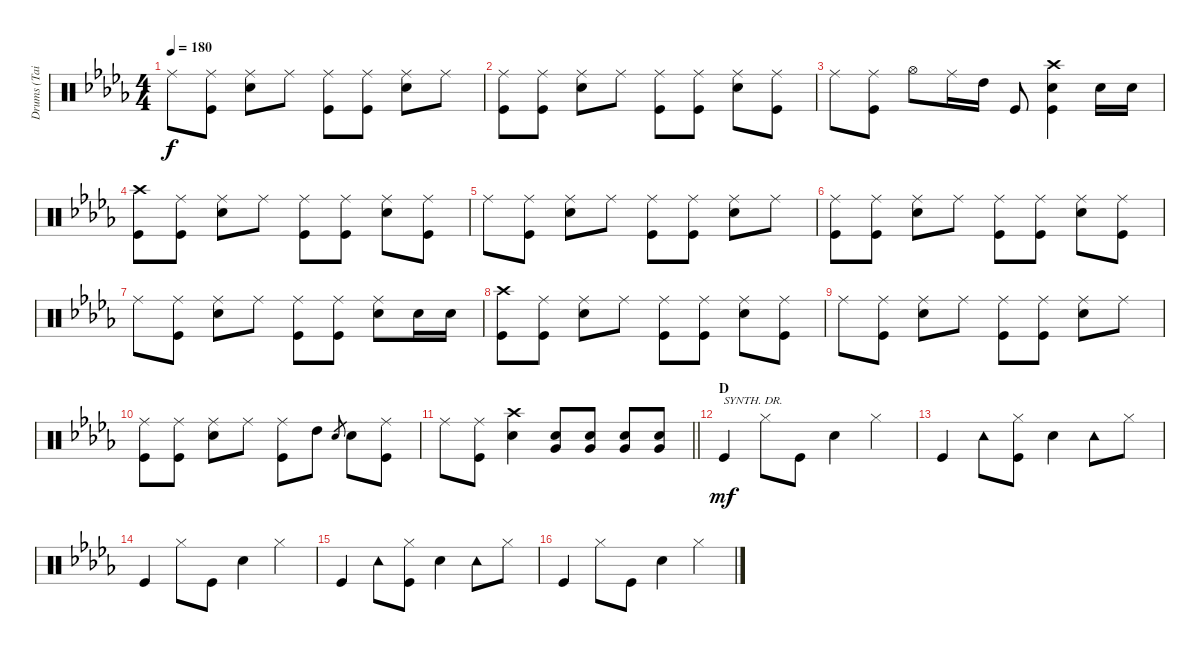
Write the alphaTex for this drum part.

\track ("Drums (Tainaka Ritsu)" "Drums (Tai") {instrument percussion}
\staff {score}
\articulation defaults
\ts (4 4)
\tempo 180
\clef neutral
\ks db "Ride (middle)".8{dy f}
("Ride (middle)" "Kick (hit)").8 ("Ride (middle)" "Snare (hit) 2").8 "Ride (middle)".8 ("Ride (middle)" "Kick (hit)").8 ("Ride (middle)" "Kick (hit)").8 ("Ride (middle)" "Snare (hit) 2").8 "Ride (middle)".8 |
("Ride (middle)" "Kick (hit)").8 ("Ride (middle)" "Kick (hit)").8 ("Ride (middle)" "Snare (hit) 2").8 "Ride (middle)".8 ("Ride (middle)" "Kick (hit)").8 ("Ride (middle)" "Kick (hit)").8 ("Ride (middle)" "Snare (hit) 2").8 ("Ride (middle)" "Kick (hit)").8 |
"Ride (middle)".8 ("Ride (middle)" "Kick (hit)").8 "Hi-Hat (open)".8 "Ride (middle)".16 "High Tom (hit)".16 "Kick (hit)".8 ("Crash high (hit)" "Snare (hit) 2" "Kick (hit)").4 "Snare (hit) 2".16 "Snare (hit) 2".16 |
("Crash high (hit)" "Kick (hit)").8 ("Ride (middle)" "Kick (hit)").8 ("Ride (middle)" "Snare (hit) 2").8 "Ride (middle)".8 ("Ride (middle)" "Kick (hit)").8 ("Ride (middle)" "Kick (hit)").8 ("Ride (middle)" "Snare (hit) 2").8 ("Ride (middle)" "Kick (hit)").8 |
"Ride (middle)".8 ("Ride (middle)" "Kick (hit)").8 ("Ride (middle)" "Snare (hit) 2").8 "Ride (middle)".8 ("Ride (middle)" "Kick (hit)").8 ("Ride (middle)" "Kick (hit)").8 ("Ride (middle)" "Snare (hit) 2").8 "Ride (middle)".8 |
("Ride (middle)" "Kick (hit)").8 ("Ride (middle)" "Kick (hit)").8 ("Ride (middle)" "Snare (hit) 2").8 "Ride (middle)".8 ("Ride (middle)" "Kick (hit)").8 ("Ride (middle)" "Kick (hit)").8 ("Ride (middle)" "Snare (hit) 2").8 ("Ride (middle)" "Kick (hit)").8 |
"Ride (middle)".8 ("Ride (middle)" "Kick (hit)").8 ("Ride (middle)" "Snare (hit) 2").8 "Ride (middle)".8 ("Ride (middle)" "Kick (hit)").8 ("Ride (middle)" "Kick (hit)").8 ("Ride (middle)" "Snare (hit) 2").8 "Snare (hit) 2".16 "Snare (hit) 2".16 |
("Crash high (hit)" "Kick (hit)").8 ("Ride (middle)" "Kick (hit)").8 ("Ride (middle)" "Snare (hit) 2").8 "Ride (middle)".8 ("Ride (middle)" "Kick (hit)").8 ("Ride (middle)" "Kick (hit)").8 ("Ride (middle)" "Snare (hit) 2").8 ("Ride (middle)" "Kick (hit)").8 |
"Ride (middle)".8 ("Ride (middle)" "Kick (hit)").8 ("Ride (middle)" "Snare (hit) 2").8 "Ride (middle)".8 ("Ride (middle)" "Kick (hit)").8 ("Ride (middle)" "Kick (hit)").8 ("Ride (middle)" "Snare (hit) 2").8 "Ride (middle)".8 |
("Ride (middle)" "Kick (hit)").8 ("Ride (middle)" "Kick (hit)").8 ("Ride (middle)" "Snare (hit) 2").8 "Ride (middle)".8 ("Ride (middle)" "Kick (hit)").8 "High Tom (hit)".8 "Snare (hit) 2".8{gr} "Snare (hit) 2".8 ("Ride (middle)" "Kick (hit)").8 |
\barLineRight lightlight "Ride (middle)".8
("Ride (middle)" "Kick (hit)").8 ("Crash high (hit)" "Snare (hit) 2").4 ("Snare (hit) 2" "Very Low Tom (hit)").8 ("Snare (hit) 2" "Very Low Tom (hit)").8 ("Snare (hit) 2" "Very Low Tom (hit)").8 ("Snare (hit) 2" "Very Low Tom (hit)").8 |
\section ("" "D")
"Kick (hit)".4{txt "SYNTH. DR." dy mf} "Hi-Hat (closed)".8 "Kick (hit)".8 "Snare (hit) 2".4 "Hi-Hat (closed)".4 |
"Kick (hit)".4 "Tambourine (hit)".8 ("Hi-Hat (closed)" "Kick (hit)").8 "Snare (hit) 2".4 "Tambourine (hit)".8 "Hi-Hat (closed)".8 |
"Kick (hit)".4 "Hi-Hat (closed)".8 "Kick (hit)".8 "Snare (hit) 2".4 "Hi-Hat (closed)".4 |
"Kick (hit)".4 "Tambourine (hit)".8 ("Hi-Hat (closed)" "Kick (hit)").8 "Snare (hit) 2".4 "Tambourine (hit)".8 "Hi-Hat (closed)".8 |
"Kick (hit)".4 "Hi-Hat (closed)".8 "Kick (hit)".8 "Snare (hit) 2".4 "Hi-Hat (closed)".4
